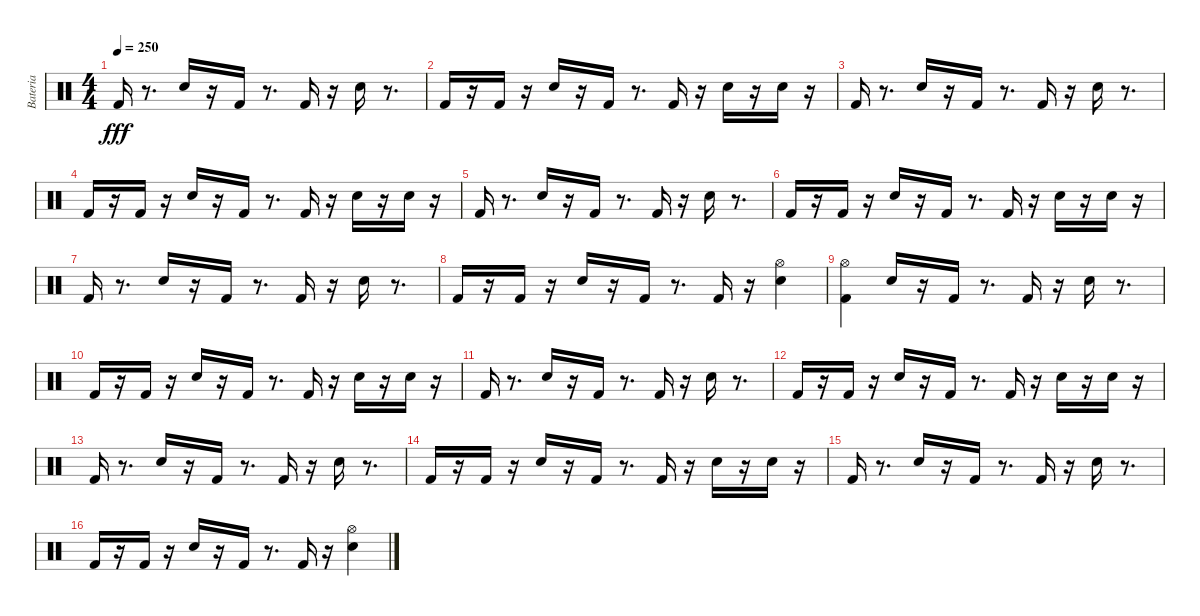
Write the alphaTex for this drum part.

\track ("Bateria" "Bateria") {instrument percussion}
\staff {score}
\articulation defaults
\ts (4 4)
\tempo 250
\clef neutral
\ks c "Kick (hit) 2".16{dy fff}
r.8{d} "Electric Snare (hit)".16 r.16 "Kick (hit) 2".16 r.8{d} "Kick (hit) 2".16 r.16 "Electric Snare (hit)".16 r.8{d} |
"Kick (hit) 2".16 r.16 "Kick (hit) 2".16 r.16 "Electric Snare (hit)".16 r.16 "Kick (hit) 2".16 r.8{d} "Kick (hit) 2".16 r.16 "Electric Snare (hit)".16 r.16 "Electric Snare (hit)".16 r.16 |
"Kick (hit) 2".16 r.8{d} "Electric Snare (hit)".16 r.16 "Kick (hit) 2".16 r.8{d} "Kick (hit) 2".16 r.16 "Electric Snare (hit)".16 r.8{d} |
"Kick (hit) 2".16 r.16 "Kick (hit) 2".16 r.16 "Electric Snare (hit)".16 r.16 "Kick (hit) 2".16 r.8{d} "Kick (hit) 2".16 r.16 "Electric Snare (hit)".16 r.16 "Electric Snare (hit)".16 r.16 |
"Kick (hit) 2".16 r.8{d} "Electric Snare (hit)".16 r.16 "Kick (hit) 2".16 r.8{d} "Kick (hit) 2".16 r.16 "Electric Snare (hit)".16 r.8{d} |
"Kick (hit) 2".16 r.16 "Kick (hit) 2".16 r.16 "Electric Snare (hit)".16 r.16 "Kick (hit) 2".16 r.8{d} "Kick (hit) 2".16 r.16 "Electric Snare (hit)".16 r.16 "Electric Snare (hit)".16 r.16 |
"Kick (hit) 2".16 r.8{d} "Electric Snare (hit)".16 r.16 "Kick (hit) 2".16 r.8{d} "Kick (hit) 2".16 r.16 "Electric Snare (hit)".16 r.8{d} |
"Kick (hit) 2".16 r.16 "Kick (hit) 2".16 r.16 "Electric Snare (hit)".16 r.16 "Kick (hit) 2".16 r.8{d} "Kick (hit) 2".16 r.16 ("Electric Snare (hit)" "Hi-Hat (open)").4 |
("Hi-Hat (open)" "Kick (hit) 2").4 "Electric Snare (hit)".16 r.16 "Kick (hit) 2".16 r.8{d} "Kick (hit) 2".16 r.16 "Electric Snare (hit)".16 r.8{d} |
"Kick (hit) 2".16 r.16 "Kick (hit) 2".16 r.16 "Electric Snare (hit)".16 r.16 "Kick (hit) 2".16 r.8{d} "Kick (hit) 2".16 r.16 "Electric Snare (hit)".16 r.16 "Electric Snare (hit)".16 r.16 |
"Kick (hit) 2".16 r.8{d} "Electric Snare (hit)".16 r.16 "Kick (hit) 2".16 r.8{d} "Kick (hit) 2".16 r.16 "Electric Snare (hit)".16 r.8{d} |
"Kick (hit) 2".16 r.16 "Kick (hit) 2".16 r.16 "Electric Snare (hit)".16 r.16 "Kick (hit) 2".16 r.8{d} "Kick (hit) 2".16 r.16 "Electric Snare (hit)".16 r.16 "Electric Snare (hit)".16 r.16 |
"Kick (hit) 2".16 r.8{d} "Electric Snare (hit)".16 r.16 "Kick (hit) 2".16 r.8{d} "Kick (hit) 2".16 r.16 "Electric Snare (hit)".16 r.8{d} |
"Kick (hit) 2".16 r.16 "Kick (hit) 2".16 r.16 "Electric Snare (hit)".16 r.16 "Kick (hit) 2".16 r.8{d} "Kick (hit) 2".16 r.16 "Electric Snare (hit)".16 r.16 "Electric Snare (hit)".16 r.16 |
"Kick (hit) 2".16 r.8{d} "Electric Snare (hit)".16 r.16 "Kick (hit) 2".16 r.8{d} "Kick (hit) 2".16 r.16 "Electric Snare (hit)".16 r.8{d} |
"Kick (hit) 2".16 r.16 "Kick (hit) 2".16 r.16 "Electric Snare (hit)".16 r.16 "Kick (hit) 2".16 r.8{d} "Kick (hit) 2".16 r.16 ("Electric Snare (hit)" "Hi-Hat (open)").4
